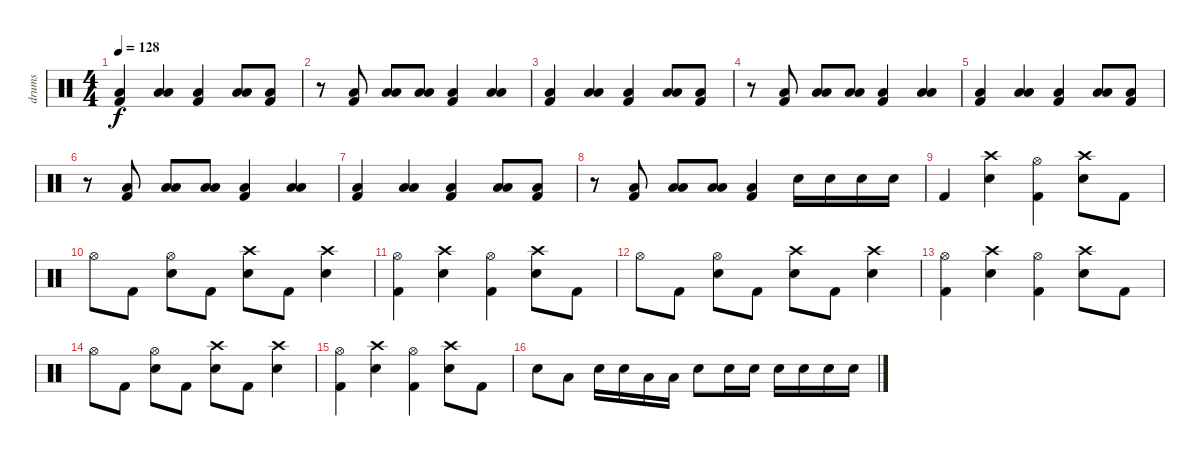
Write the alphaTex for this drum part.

\track ("drums" "drums") {instrument percussion}
\staff {score}
\articulation defaults
\ts (4 4)
\tempo 128
\clef neutral
\ks c
("Low Floor Tom (hit)" "Kick (hit) 2").4{dy f} ("Low Tom (hit)" "Low Floor Tom (hit)").4 ("Low Floor Tom (hit)" "Kick (hit) 2").4 ("Low Tom (hit)" "Low Floor Tom (hit)").8 ("Low Floor Tom (hit)" "Kick (hit) 2").8 |
r.8 ("Low Floor Tom (hit)" "Kick (hit) 2").8 ("Low Tom (hit)" "Low Floor Tom (hit)").8 ("Low Tom (hit)" "Low Floor Tom (hit)").8 ("Low Floor Tom (hit)" "Kick (hit) 2").4 ("Low Tom (hit)" "Low Floor Tom (hit)").4 |
("Low Floor Tom (hit)" "Kick (hit) 2").4 ("Low Tom (hit)" "Low Floor Tom (hit)").4 ("Low Floor Tom (hit)" "Kick (hit) 2").4 ("Low Tom (hit)" "Low Floor Tom (hit)").8 ("Low Floor Tom (hit)" "Kick (hit) 2").8 |
r.8 ("Low Floor Tom (hit)" "Kick (hit) 2").8 ("Low Tom (hit)" "Low Floor Tom (hit)").8 ("Low Tom (hit)" "Low Floor Tom (hit)").8 ("Low Floor Tom (hit)" "Kick (hit) 2").4 ("Low Tom (hit)" "Low Floor Tom (hit)").4 |
("Low Floor Tom (hit)" "Kick (hit) 2").4 ("Low Tom (hit)" "Low Floor Tom (hit)").4 ("Low Floor Tom (hit)" "Kick (hit) 2").4 ("Low Tom (hit)" "Low Floor Tom (hit)").8 ("Low Floor Tom (hit)" "Kick (hit) 2").8 |
r.8 ("Low Floor Tom (hit)" "Kick (hit) 2").8 ("Low Tom (hit)" "Low Floor Tom (hit)").8 ("Low Tom (hit)" "Low Floor Tom (hit)").8 ("Low Floor Tom (hit)" "Kick (hit) 2").4 ("Low Tom (hit)" "Low Floor Tom (hit)").4 |
("Low Floor Tom (hit)" "Kick (hit) 2").4 ("Low Tom (hit)" "Low Floor Tom (hit)").4 ("Low Floor Tom (hit)" "Kick (hit) 2").4 ("Low Tom (hit)" "Low Floor Tom (hit)").8 ("Low Floor Tom (hit)" "Kick (hit) 2").8 |
r.8 ("Low Floor Tom (hit)" "Kick (hit) 2").8 ("Low Tom (hit)" "Low Floor Tom (hit)").8 ("Low Tom (hit)" "Low Floor Tom (hit)").8 ("Low Floor Tom (hit)" "Kick (hit) 2").4 "Electric Snare (hit)".16 "Electric Snare (hit)".16 "Electric Snare (hit)".16 "Electric Snare (hit)".16 |
"Kick (hit) 2".4 ("Crash high (hit)" "Electric Snare (hit)").4 ("Hi-Hat (open)" "Kick (hit) 2").4 ("Crash high (hit)" "Electric Snare (hit)").8 "Kick (hit) 2".8 |
"Hi-Hat (open)".8 "Kick (hit) 2".8 ("Hi-Hat (open)" "Electric Snare (hit)").8 "Kick (hit) 2".8 ("Crash high (hit)" "Electric Snare (hit)").8 "Kick (hit) 2".8 ("Crash high (hit)" "Electric Snare (hit)").4 |
("Hi-Hat (open)" "Kick (hit) 2").4 ("Crash high (hit)" "Electric Snare (hit)").4 ("Hi-Hat (open)" "Kick (hit) 2").4 ("Crash high (hit)" "Electric Snare (hit)").8 "Kick (hit) 2".8 |
"Hi-Hat (open)".8 "Kick (hit) 2".8 ("Hi-Hat (open)" "Electric Snare (hit)").8 "Kick (hit) 2".8 ("Crash high (hit)" "Electric Snare (hit)").8 "Kick (hit) 2".8 ("Crash high (hit)" "Electric Snare (hit)").4 |
("Hi-Hat (open)" "Kick (hit) 2").4 ("Crash high (hit)" "Electric Snare (hit)").4 ("Hi-Hat (open)" "Kick (hit) 2").4 ("Crash high (hit)" "Electric Snare (hit)").8 "Kick (hit) 2".8 |
"Hi-Hat (open)".8 "Kick (hit) 2".8 ("Hi-Hat (open)" "Electric Snare (hit)").8 "Kick (hit) 2".8 ("Crash high (hit)" "Electric Snare (hit)").8 "Kick (hit) 2".8 ("Crash high (hit)" "Electric Snare (hit)").4 |
("Hi-Hat (open)" "Kick (hit) 2").4 ("Crash high (hit)" "Electric Snare (hit)").4 ("Hi-Hat (open)" "Kick (hit) 2").4 ("Crash high (hit)" "Electric Snare (hit)").8 "Kick (hit) 2".8 |
"Electric Snare (hit)".8 "Low Tom (hit)".8 "Electric Snare (hit)".16 "Electric Snare (hit)".16 "Low Tom (hit)".16 "Low Tom (hit)".16 "Electric Snare (hit)".8 "Electric Snare (hit)".16 "Electric Snare (hit)".16 "Electric Snare (hit)".16 "Electric Snare (hit)".16 "Electric Snare (hit)".16 "Electric Snare (hit)".16
